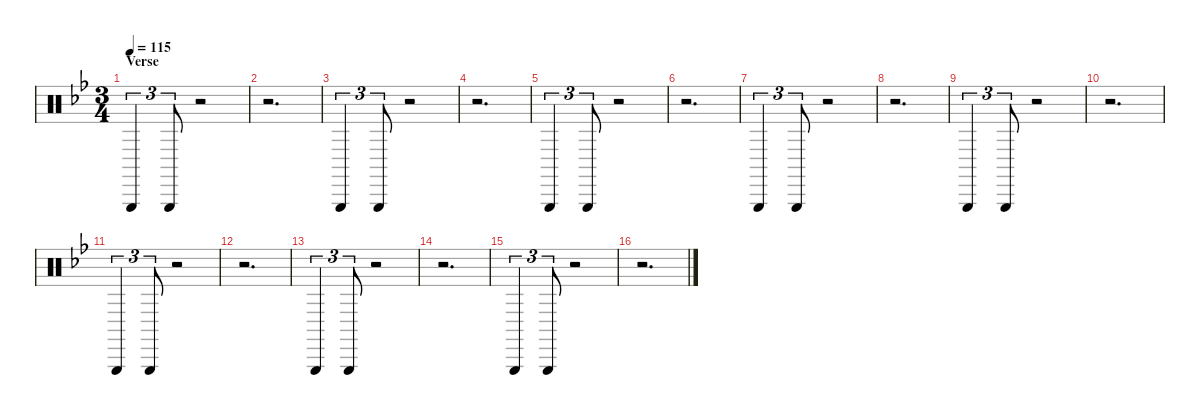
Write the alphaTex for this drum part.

\defaultSystemsLayout 4
\hideDynamics
\bracketExtendMode nobrackets
\singleTrackTrackNamePolicy hidden
\multiTrackTrackNamePolicy hidden
\firstSystemTrackNameMode fullname
\firstSystemTrackNameOrientation horizontal
\otherSystemsTrackNameOrientation horizontal
\track ("Percussion" "drm.") {defaultSystemsLayout 16 instrument percussion}
\staff {score}
\articulation defaults
\ts (3 4)
\section ("" "Verse")
\tempo 115
\clef neutral
\ks gminor "Triangle (hit)"{acc forcenatural}.4{tu (3 2) dy mf beam Up} "Triangle (hit)"{acc forcenatural}.8{tu (3 2) dy p beam Up}
r.2{beam Up} |
r.2{d beam Down} |
"Triangle (hit)"{acc forcenatural}.4{tu (3 2) dy mf beam Up} "Triangle (hit)"{acc forcenatural}.8{tu (3 2) dy p beam Up} r.2{beam Up} |
r.2{d beam Down} |
"Triangle (hit)"{acc forcenatural}.4{tu (3 2) dy mf beam Up} "Triangle (hit)"{acc forcenatural}.8{tu (3 2) dy p beam Up} r.2{beam Up} |
r.2{d beam Down} |
"Triangle (hit)"{acc forcenatural}.4{tu (3 2) dy mf beam Up} "Triangle (hit)"{acc forcenatural}.8{tu (3 2) dy p beam Up} r.2{beam Up} |
r.2{d beam Down} |
"Triangle (hit)"{acc forcenatural}.4{tu (3 2) dy mf beam Up} "Triangle (hit)"{acc forcenatural}.8{tu (3 2) dy p beam Up} r.2{beam Up} |
r.2{d beam Down} |
"Triangle (hit)"{acc forcenatural}.4{tu (3 2) dy mf beam Up} "Triangle (hit)"{acc forcenatural}.8{tu (3 2) dy p beam Up} r.2{beam Up} |
r.2{d beam Down} |
"Triangle (hit)"{acc forcenatural}.4{tu (3 2) dy mf beam Up} "Triangle (hit)"{acc forcenatural}.8{tu (3 2) dy p beam Up} r.2{beam Up} |
r.2{d beam Down} |
"Triangle (hit)"{acc forcenatural}.4{tu (3 2) dy mf beam Up} "Triangle (hit)"{acc forcenatural}.8{tu (3 2) dy p beam Up} r.2{beam Up} |
r.2{d beam Down}
